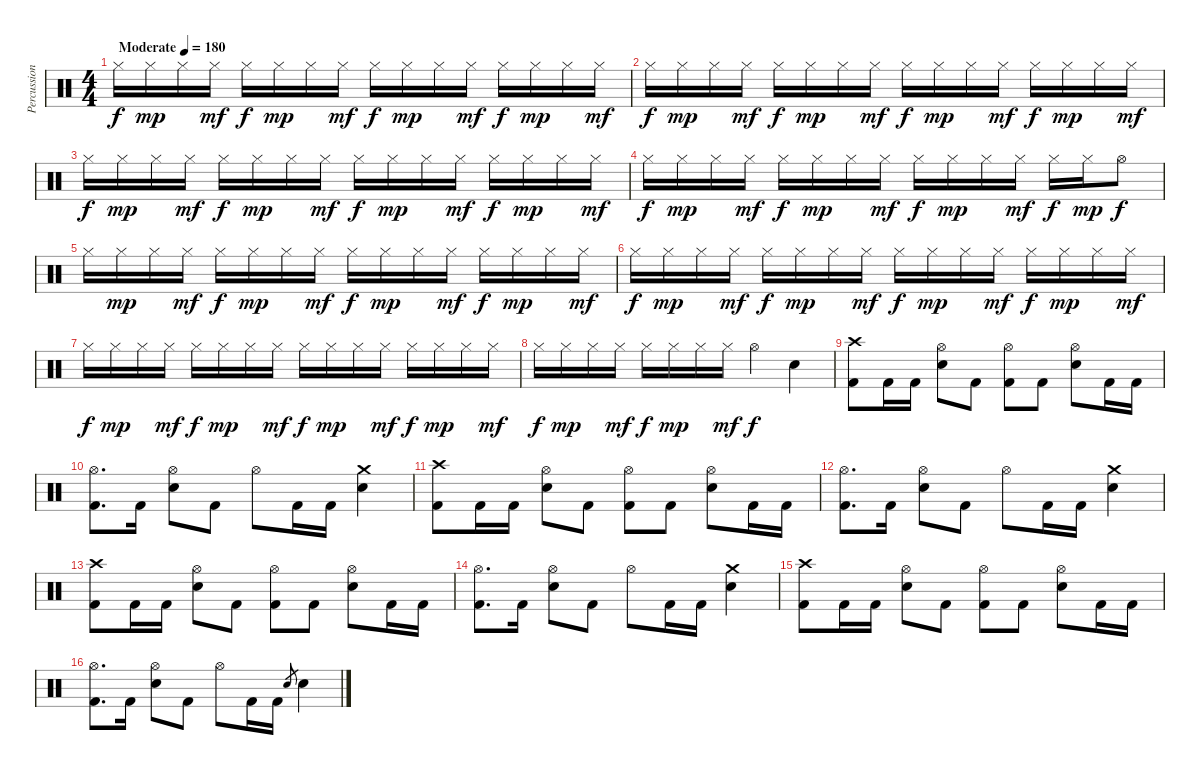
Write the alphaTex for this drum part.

\track ("Percussion" "Percussion") {instrument percussion}
\staff {score}
\articulation defaults
\ts (4 4)
\tempo (180 "Moderate")
\clef neutral
\ks c "Hi-Hat (closed)".16{dy f} "Hi-Hat (closed)".16{dy mp} "Hi-Hat (closed)".16 "Hi-Hat (closed)".16{dy mf} "Hi-Hat (closed)".16{dy f} "Hi-Hat (closed)".16{dy mp} "Hi-Hat (closed)".16 "Hi-Hat (closed)".16{dy mf} "Hi-Hat (closed)".16{dy f} "Hi-Hat (closed)".16{dy mp} "Hi-Hat (closed)".16 "Hi-Hat (closed)".16{dy mf} "Hi-Hat (closed)".16{dy f} "Hi-Hat (closed)".16{dy mp} "Hi-Hat (closed)".16 "Hi-Hat (closed)".16{dy mf}
|
"Hi-Hat (closed)".16{dy f} "Hi-Hat (closed)".16{dy mp} "Hi-Hat (closed)".16 "Hi-Hat (closed)".16{dy mf} "Hi-Hat (closed)".16{dy f} "Hi-Hat (closed)".16{dy mp} "Hi-Hat (closed)".16 "Hi-Hat (closed)".16{dy mf} "Hi-Hat (closed)".16{dy f} "Hi-Hat (closed)".16{dy mp} "Hi-Hat (closed)".16 "Hi-Hat (closed)".16{dy mf} "Hi-Hat (closed)".16{dy f} "Hi-Hat (closed)".16{dy mp} "Hi-Hat (closed)".16 "Hi-Hat (closed)".16{dy mf} |
"Hi-Hat (closed)".16{dy f} "Hi-Hat (closed)".16{dy mp} "Hi-Hat (closed)".16 "Hi-Hat (closed)".16{dy mf} "Hi-Hat (closed)".16{dy f} "Hi-Hat (closed)".16{dy mp} "Hi-Hat (closed)".16 "Hi-Hat (closed)".16{dy mf} "Hi-Hat (closed)".16{dy f} "Hi-Hat (closed)".16{dy mp} "Hi-Hat (closed)".16 "Hi-Hat (closed)".16{dy mf} "Hi-Hat (closed)".16{dy f} "Hi-Hat (closed)".16{dy mp} "Hi-Hat (closed)".16 "Hi-Hat (closed)".16{dy mf} |
"Hi-Hat (closed)".16{dy f} "Hi-Hat (closed)".16{dy mp} "Hi-Hat (closed)".16 "Hi-Hat (closed)".16{dy mf} "Hi-Hat (closed)".16{dy f} "Hi-Hat (closed)".16{dy mp} "Hi-Hat (closed)".16 "Hi-Hat (closed)".16{dy mf} "Hi-Hat (closed)".16{dy f} "Hi-Hat (closed)".16{dy mp} "Hi-Hat (closed)".16 "Hi-Hat (closed)".16{dy mf} "Hi-Hat (closed)".16{dy f} "Hi-Hat (closed)".16{dy mp} "Hi-Hat (open)".8{dy f} |
"Hi-Hat (closed)".16 "Hi-Hat (closed)".16{dy mp} "Hi-Hat (closed)".16 "Hi-Hat (closed)".16{dy mf} "Hi-Hat (closed)".16{dy f} "Hi-Hat (closed)".16{dy mp} "Hi-Hat (closed)".16 "Hi-Hat (closed)".16{dy mf} "Hi-Hat (closed)".16{dy f} "Hi-Hat (closed)".16{dy mp} "Hi-Hat (closed)".16 "Hi-Hat (closed)".16{dy mf} "Hi-Hat (closed)".16{dy f} "Hi-Hat (closed)".16{dy mp} "Hi-Hat (closed)".16 "Hi-Hat (closed)".16{dy mf} |
"Hi-Hat (closed)".16{dy f} "Hi-Hat (closed)".16{dy mp} "Hi-Hat (closed)".16 "Hi-Hat (closed)".16{dy mf} "Hi-Hat (closed)".16{dy f} "Hi-Hat (closed)".16{dy mp} "Hi-Hat (closed)".16 "Hi-Hat (closed)".16{dy mf} "Hi-Hat (closed)".16{dy f} "Hi-Hat (closed)".16{dy mp} "Hi-Hat (closed)".16 "Hi-Hat (closed)".16{dy mf} "Hi-Hat (closed)".16{dy f} "Hi-Hat (closed)".16{dy mp} "Hi-Hat (closed)".16 "Hi-Hat (closed)".16{dy mf} |
"Hi-Hat (closed)".16{dy f} "Hi-Hat (closed)".16{dy mp} "Hi-Hat (closed)".16 "Hi-Hat (closed)".16{dy mf} "Hi-Hat (closed)".16{dy f} "Hi-Hat (closed)".16{dy mp} "Hi-Hat (closed)".16 "Hi-Hat (closed)".16{dy mf} "Hi-Hat (closed)".16{dy f} "Hi-Hat (closed)".16{dy mp} "Hi-Hat (closed)".16 "Hi-Hat (closed)".16{dy mf} "Hi-Hat (closed)".16{dy f} "Hi-Hat (closed)".16{dy mp} "Hi-Hat (closed)".16 "Hi-Hat (closed)".16{dy mf} |
"Hi-Hat (closed)".16{dy f} "Hi-Hat (closed)".16{dy mp} "Hi-Hat (closed)".16 "Hi-Hat (closed)".16{dy mf} "Hi-Hat (closed)".16{dy f} "Hi-Hat (closed)".16{dy mp} "Hi-Hat (closed)".16 "Hi-Hat (closed)".16{dy mf} "Hi-Hat (open)".4{dy f} "Electric Snare (hit)".4 |
("Crash high (hit)" "Kick (hit) 2").8 "Kick (hit) 2".16 "Kick (hit) 2".16 ("Hi-Hat (open)" "Electric Snare (hit)").8 "Kick (hit) 2".8 ("Hi-Hat (open)" "Kick (hit) 2").8 "Kick (hit) 2".8 ("Hi-Hat (open)" "Electric Snare (hit)").8 "Kick (hit) 2".16 "Kick (hit) 2".16 |
("Hi-Hat (open)" "Kick (hit) 2").8{d} "Kick (hit) 2".16 ("Hi-Hat (open)" "Electric Snare (hit)").8 "Kick (hit) 2".8 "Hi-Hat (open)".8 "Kick (hit) 2".16 "Kick (hit) 2".16 ("Crash medium (hit)" "Electric Snare (hit)").4 |
("Crash high (hit)" "Kick (hit) 2").8 "Kick (hit) 2".16 "Kick (hit) 2".16 ("Hi-Hat (open)" "Electric Snare (hit)").8 "Kick (hit) 2".8 ("Hi-Hat (open)" "Kick (hit) 2").8 "Kick (hit) 2".8 ("Hi-Hat (open)" "Electric Snare (hit)").8 "Kick (hit) 2".16 "Kick (hit) 2".16 |
("Hi-Hat (open)" "Kick (hit) 2").8{d} "Kick (hit) 2".16 ("Hi-Hat (open)" "Electric Snare (hit)").8 "Kick (hit) 2".8 "Hi-Hat (open)".8 "Kick (hit) 2".16 "Kick (hit) 2".16 ("Crash medium (hit)" "Electric Snare (hit)").4 |
("Crash high (hit)" "Kick (hit) 2").8 "Kick (hit) 2".16 "Kick (hit) 2".16 ("Hi-Hat (open)" "Electric Snare (hit)").8 "Kick (hit) 2".8 ("Hi-Hat (open)" "Kick (hit) 2").8 "Kick (hit) 2".8 ("Hi-Hat (open)" "Electric Snare (hit)").8 "Kick (hit) 2".16 "Kick (hit) 2".16 |
("Hi-Hat (open)" "Kick (hit) 2").8{d} "Kick (hit) 2".16 ("Hi-Hat (open)" "Electric Snare (hit)").8 "Kick (hit) 2".8 "Hi-Hat (open)".8 "Kick (hit) 2".16 "Kick (hit) 2".16 ("Crash medium (hit)" "Electric Snare (hit)").4 |
("Crash high (hit)" "Kick (hit) 2").8 "Kick (hit) 2".16 "Kick (hit) 2".16 ("Hi-Hat (open)" "Electric Snare (hit)").8 "Kick (hit) 2".8 ("Hi-Hat (open)" "Kick (hit) 2").8 "Kick (hit) 2".8 ("Hi-Hat (open)" "Electric Snare (hit)").8 "Kick (hit) 2".16 "Kick (hit) 2".16 |
("Hi-Hat (open)" "Kick (hit) 2").8{d} "Kick (hit) 2".16 ("Hi-Hat (open)" "Electric Snare (hit)").8 "Kick (hit) 2".8 "Hi-Hat (open)".8 "Kick (hit) 2".16 "Kick (hit) 2".16 "Electric Snare (hit)".8{gr} "Electric Snare (hit)".4
